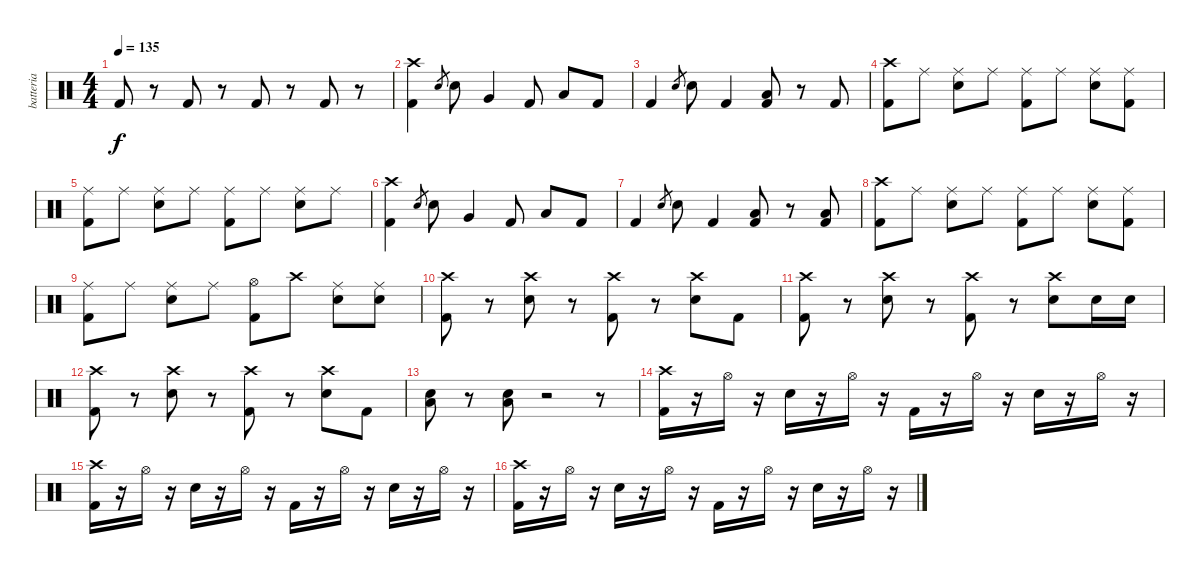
\track ("batteria" "batteria") {instrument percussion}
\staff {score}
\articulation defaults
\ts (4 4)
\tempo 135
\clef neutral
\ks c "Kick (hit) 2".8{dy f}
r.8 "Kick (hit) 2".8 r.8 "Kick (hit) 2".8 r.8 "Kick (hit) 2".8 r.8 |
("Crash high (hit)" "Kick (hit) 2").4 "Electric Snare (hit)".8{gr} "Electric Snare (hit)".8 "Very Low Tom (hit)".4 "Kick (hit) 2".8 "Low Floor Tom (hit)".8 "Kick (hit) 2".8 |
"Kick (hit) 2".4 "Electric Snare (hit)".8{gr} "Electric Snare (hit)".8 "Kick (hit) 2".4 ("Low Floor Tom (hit)" "Kick (hit) 2").8 r.8 "Kick (hit) 2".8 |
("Crash high (hit)" "Kick (hit) 2").8 "Ride (middle)".8 ("Ride (middle)" "Electric Snare (hit)").8 "Ride (middle)".8 ("Ride (middle)" "Kick (hit) 2").8 "Ride (middle)".8 ("Ride (middle)" "Electric Snare (hit)").8 ("Ride (middle)" "Kick (hit) 2").8 |
("Ride (middle)" "Kick (hit) 2").8 "Ride (middle)".8 ("Ride (middle)" "Electric Snare (hit)").8 "Ride (middle)".8 ("Ride (middle)" "Kick (hit) 2").8 "Ride (middle)".8 ("Ride (middle)" "Electric Snare (hit)").8 "Ride (middle)".8 |
("Crash high (hit)" "Kick (hit) 2").4 "Electric Snare (hit)".8{gr} "Electric Snare (hit)".8 "Very Low Tom (hit)".4 "Kick (hit) 2".8 "Low Floor Tom (hit)".8 "Kick (hit) 2".8 |
"Kick (hit) 2".4 "Electric Snare (hit)".8{gr} "Electric Snare (hit)".8 "Kick (hit) 2".4 ("Low Floor Tom (hit)" "Kick (hit) 2").8 r.8 ("Low Floor Tom (hit)" "Kick (hit) 2").8 |
("Crash high (hit)" "Kick (hit) 2").8 "Ride (middle)".8 ("Ride (middle)" "Electric Snare (hit)").8 "Ride (middle)".8 ("Ride (middle)" "Kick (hit) 2").8 "Ride (middle)".8 ("Ride (middle)" "Electric Snare (hit)").8 ("Ride (middle)" "Kick (hit) 2").8 |
("Ride (middle)" "Kick (hit) 2").8 "Ride (middle)".8 ("Ride (middle)" "Electric Snare (hit)").8 "Ride (middle)".8 ("Hi-Hat (open)" "Kick (hit) 2").8 "Crash high (hit)".8 ("Ride (middle)" "Electric Snare (hit)").8 ("Ride (middle)" "Electric Snare (hit)").8 |
("Crash high (hit)" "Kick (hit) 2").8 r.8 ("Crash high (hit)" "Electric Snare (hit)").8 r.8 ("Crash high (hit)" "Kick (hit) 2").8 r.8 ("Crash high (hit)" "Electric Snare (hit)").8 "Kick (hit) 2".8 |
("Crash high (hit)" "Kick (hit) 2").8 r.8 ("Crash high (hit)" "Electric Snare (hit)").8 r.8 ("Crash high (hit)" "Kick (hit) 2").8 r.8 ("Crash high (hit)" "Electric Snare (hit)").8 "Electric Snare (hit)".16 "Electric Snare (hit)".16 |
("Crash high (hit)" "Kick (hit) 2").8 r.8 ("Crash high (hit)" "Electric Snare (hit)").8 r.8 ("Crash high (hit)" "Kick (hit) 2").8 r.8 ("Crash high (hit)" "Electric Snare (hit)").8 "Kick (hit) 2".8 |
("Low Floor Tom (hit)" "Electric Snare (hit)").8 r.8 ("Low Floor Tom (hit)" "Electric Snare (hit)").8 r.2 r.8 |
("Crash high (hit)" "Kick (hit) 2").16 r.16 "Hi-Hat (open)".16 r.16 "Electric Snare (hit)".16 r.16 "Hi-Hat (open)".16 r.16 "Kick (hit) 2".16 r.16 "Hi-Hat (open)".16 r.16 "Electric Snare (hit)".16 r.16 "Hi-Hat (open)".16 r.16 |
("Crash high (hit)" "Kick (hit) 2").16 r.16 "Hi-Hat (open)".16 r.16 "Electric Snare (hit)".16 r.16 "Hi-Hat (open)".16 r.16 "Kick (hit) 2".16 r.16 "Hi-Hat (open)".16 r.16 "Electric Snare (hit)".16 r.16 "Hi-Hat (open)".16 r.16 |
("Crash high (hit)" "Kick (hit) 2").16 r.16 "Hi-Hat (open)".16 r.16 "Electric Snare (hit)".16 r.16 "Hi-Hat (open)".16 r.16 "Kick (hit) 2".16 r.16 "Hi-Hat (open)".16 r.16 "Electric Snare (hit)".16 r.16 "Hi-Hat (open)".16 r.16
